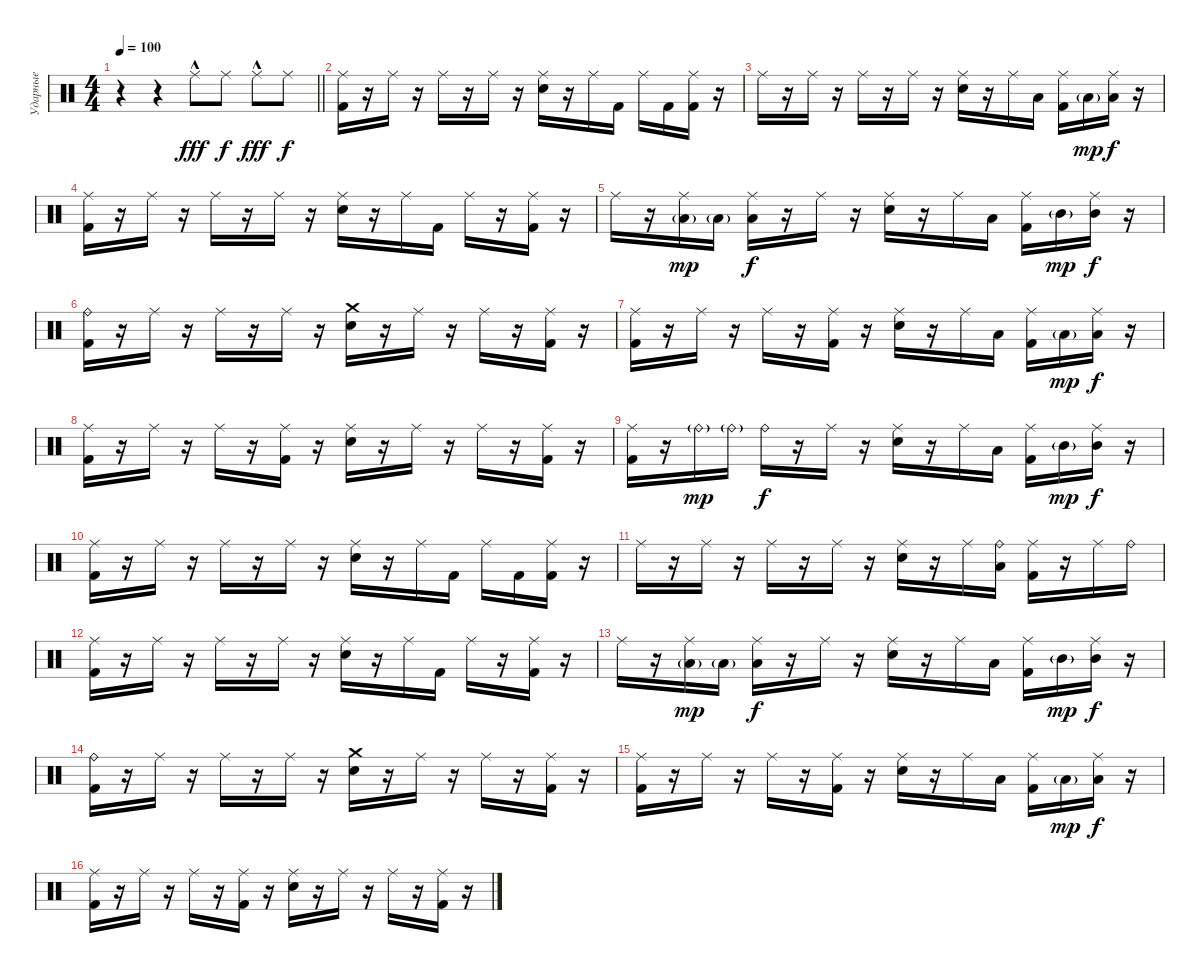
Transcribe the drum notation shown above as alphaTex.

\track ("Ударные" "Ударные") {instrument percussion}
\staff {score}
\articulation defaults
\ts (4 4)
\tempo 100
\clef neutral
\barLineRight lightlight
\ks c
r.4{dy fff} r.4 "Ride (middle)"{hac}.8 "Ride (middle)".8{dy f} "Ride (middle)"{hac}.8{dy fff} "Ride (middle)".8{dy f} |
\section ("" "")
("Ride (middle)" "Kick (hit) 2").16 r.16 "Ride (middle)".16 r.16 "Ride (middle)".16 r.16 "Ride (middle)".16 r.16 ("Ride (middle)" "Electric Snare (hit)").16 r.16 "Ride (middle)".16 "Kick (hit) 2".16 "Ride (middle)".16 "Kick (hit) 2".16 ("Ride (middle)" "Kick (hit) 2").16 r.16 |
"Ride (middle)".16 r.16 "Ride (middle)".16 r.16 "Ride (middle)".16 r.16 "Ride (middle)".16 r.16 ("Ride (middle)" "Electric Snare (hit)").16 r.16 "Ride (middle)".16 "Low Floor Tom (hit)".16 ("Ride (middle)" "Kick (hit) 2").16 "Low Floor Tom (hit)"{g}.16{dy mp} ("Ride (middle)" "Low Floor Tom (hit)").16{dy f} r.16 |
("Ride (middle)" "Kick (hit) 2").16 r.16 "Ride (middle)".16 r.16 "Ride (middle)".16 r.16 "Ride (middle)".16 r.16 ("Ride (middle)" "Electric Snare (hit)").16 r.16 "Ride (middle)".16 "Kick (hit) 2".16 "Ride (middle)".16 r.16 ("Ride (middle)" "Kick (hit) 2").16 r.16 |
"Ride (middle)".16 r.16 ("Ride (middle)" "Low Floor Tom (hit)"{g}).16{dy mp} "Low Floor Tom (hit)"{g}.16 ("Ride (middle)" "Low Floor Tom (hit)").16{dy f} r.16 "Ride (middle)".16 r.16 ("Ride (middle)" "Electric Snare (hit)").16 r.16 "Ride (middle)".16 "Low Floor Tom (hit)".16 ("Ride (middle)" "Kick (hit) 2").16 "Mid Tom (hit)"{g}.16{dy mp} ("Ride (middle)" "Mid Tom (hit)").16{dy f} r.16 |
("Ride (bell)" "Kick (hit) 2").16 r.16 "Ride (middle)".16 r.16 "Ride (middle)".16 r.16 "Ride (middle)".16 r.16 ("Crash medium (hit)" "Electric Snare (hit)").16 r.16 "Ride (middle)".16 r.16 "Ride (middle)".16 r.16 ("Ride (middle)" "Kick (hit) 2").16 r.16 |
("Ride (middle)" "Kick (hit) 2").16 r.16 "Ride (middle)".16 r.16 "Ride (middle)".16 r.16 ("Ride (middle)" "Kick (hit) 2").16 r.16 ("Ride (middle)" "Electric Snare (hit)").16 r.16 "Ride (middle)".16 "Low Floor Tom (hit)".16 ("Ride (middle)" "Kick (hit) 2").16 "Low Floor Tom (hit)"{g}.16{dy mp} ("Ride (middle)" "Low Floor Tom (hit)").16{dy f} r.16 |
("Ride (middle)" "Kick (hit) 2").16 r.16 "Ride (middle)".16 r.16 "Ride (middle)".16 r.16 ("Ride (middle)" "Kick (hit) 2").16 r.16 ("Ride (middle)" "Electric Snare (hit)").16 r.16 "Ride (middle)".16 r.16 "Ride (middle)".16 r.16 ("Ride (middle)" "Kick (hit) 2").16 r.16 |
("Ride (middle)" "Kick (hit) 2").16 r.16 "Ride (bell)"{g}.16{dy mp} "Ride (bell)"{g}.16 "Ride (bell)".16{dy f} r.16 "Ride (middle)".16 r.16 ("Ride (middle)" "Electric Snare (hit)").16 r.16 "Ride (middle)".16 "Low Floor Tom (hit)".16 ("Ride (middle)" "Kick (hit) 2").16 "Mid Tom (hit)"{g}.16{dy mp} ("Ride (middle)" "Mid Tom (hit)").16{dy f} r.16 |
("Ride (middle)" "Kick (hit) 2").16 r.16 "Ride (middle)".16 r.16 "Ride (middle)".16 r.16 "Ride (middle)".16 r.16 ("Ride (middle)" "Electric Snare (hit)").16 r.16 "Ride (middle)".16 "Kick (hit) 2".16 "Ride (middle)".16 "Kick (hit) 2".16 ("Ride (middle)" "Kick (hit) 2").16 r.16 |
"Ride (middle)".16 r.16 "Ride (middle)".16 r.16 "Ride (middle)".16 r.16 "Ride (middle)".16 r.16 ("Ride (middle)" "Electric Snare (hit)").16 r.16 "Ride (middle)".16 ("Ride (bell)" "Low Floor Tom (hit)").16 ("Ride (middle)" "Kick (hit) 2").16 r.16 "Ride (middle)".16 "Ride (bell)".16 |
("Ride (middle)" "Kick (hit) 2").16 r.16 "Ride (middle)".16 r.16 "Ride (middle)".16 r.16 "Ride (middle)".16 r.16 ("Ride (middle)" "Electric Snare (hit)").16 r.16 "Ride (middle)".16 "Kick (hit) 2".16 "Ride (middle)".16 r.16 ("Ride (middle)" "Kick (hit) 2").16 r.16 |
"Ride (middle)".16 r.16 ("Ride (middle)" "Low Floor Tom (hit)"{g}).16{dy mp} "Low Floor Tom (hit)"{g}.16 ("Ride (middle)" "Low Floor Tom (hit)").16{dy f} r.16 "Ride (middle)".16 r.16 ("Ride (middle)" "Electric Snare (hit)").16 r.16 "Ride (middle)".16 "Low Floor Tom (hit)".16 ("Ride (middle)" "Kick (hit) 2").16 "Mid Tom (hit)"{g}.16{dy mp} ("Ride (middle)" "Mid Tom (hit)").16{dy f} r.16 |
("Ride (bell)" "Kick (hit) 2").16 r.16 "Ride (middle)".16 r.16 "Ride (middle)".16 r.16 "Ride (middle)".16 r.16 ("Crash medium (hit)" "Electric Snare (hit)").16 r.16 "Ride (middle)".16 r.16 "Ride (middle)".16 r.16 ("Ride (middle)" "Kick (hit) 2").16 r.16 |
("Ride (middle)" "Kick (hit) 2").16 r.16 "Ride (middle)".16 r.16 "Ride (middle)".16 r.16 ("Ride (middle)" "Kick (hit) 2").16 r.16 ("Ride (middle)" "Electric Snare (hit)").16 r.16 "Ride (middle)".16 "Low Floor Tom (hit)".16 ("Ride (middle)" "Kick (hit) 2").16 "Low Floor Tom (hit)"{g}.16{dy mp} ("Ride (middle)" "Low Floor Tom (hit)").16{dy f} r.16 |
("Ride (middle)" "Kick (hit) 2").16 r.16 "Ride (middle)".16 r.16 "Ride (middle)".16 r.16 ("Ride (middle)" "Kick (hit) 2").16 r.16 ("Ride (middle)" "Electric Snare (hit)").16 r.16 "Ride (middle)".16 r.16 "Ride (middle)".16 r.16 ("Ride (middle)" "Kick (hit) 2").16 r.16
